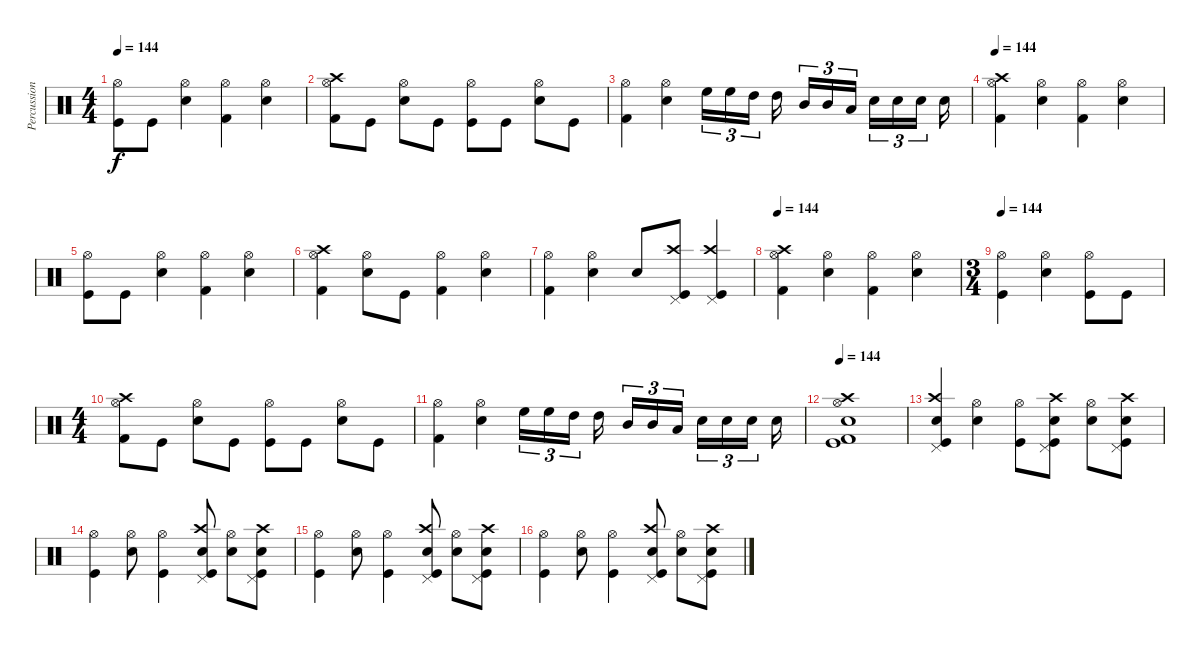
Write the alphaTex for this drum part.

\track ("Percussion" "Percussion") {instrument percussion}
\staff {score}
\articulation defaults
\ts (4 4)
\tempo 144
\clef neutral
\ks c
("Hi-Hat (open)" "Kick (hit)").8{dy f} "Kick (hit)".8 ("Hi-Hat (open)" "Snare (hit) 2").4 ("Hi-Hat (open)" "Kick (hit) 2").4 ("Hi-Hat (open)" "Snare (hit) 2").4 |
("Hi-Hat (open)" "Kick (hit) 2" "Crash high (hit)").8 "Kick (hit)".8 ("Hi-Hat (open)" "Snare (hit) 2").8 "Kick (hit)".8 ("Hi-Hat (open)" "Kick (hit)").8 "Kick (hit)".8 ("Hi-Hat (open)" "Snare (hit) 2").8 "Kick (hit)".8 |
("Hi-Hat (open)" "Kick (hit) 2").4 ("Hi-Hat (open)" "Snare (hit) 2").4 "High Floor Tom (hit)".16{tu (3 2)} "High Floor Tom (hit)".16{tu (3 2)} "High Tom (hit)".16{tu (3 2)} "High Tom (hit)".16 "Mid Tom (hit)".16{tu (3 2)} "Mid Tom (hit)".16{tu (3 2)} "Low Tom (hit)".16{tu (3 2)} "Snare (hit) 2".16{tu (3 2)} "Snare (hit) 2".16{tu (3 2)} "Snare (hit) 2".16{tu (3 2)} "Snare (hit) 2".16 |
\tempo 144
("Hi-Hat (open)" "Kick (hit) 2" "Crash high (hit)").4 ("Hi-Hat (open)" "Snare (hit) 2").4 ("Hi-Hat (open)" "Kick (hit) 2").4 ("Hi-Hat (open)" "Snare (hit) 2").4 |
("Hi-Hat (open)" "Kick (hit)").8 "Kick (hit)".8 ("Hi-Hat (open)" "Snare (hit) 2").4 ("Hi-Hat (open)" "Kick (hit) 2").4 ("Hi-Hat (open)" "Snare (hit) 2").4 |
("Hi-Hat (open)" "Kick (hit) 2" "Crash high (hit)").4 ("Hi-Hat (open)" "Snare (hit) 2").8 "Kick (hit)".8 ("Hi-Hat (open)" "Kick (hit) 2").4 ("Hi-Hat (open)" "Snare (hit) 2").4 |
("Hi-Hat (open)" "Kick (hit) 2").4 ("Hi-Hat (open)" "Snare (hit) 2").4 "Snare (hit) 2".8 ("Pedal Hi-Hat (hit)" "Crash high (hit)" "Kick (hit)").8 ("Pedal Hi-Hat (hit)" "Crash high (hit)" "Kick (hit)").4 |
\tempo 144
("Hi-Hat (open)" "Kick (hit) 2" "Crash high (hit)").4 ("Hi-Hat (open)" "Snare (hit) 2").4 ("Hi-Hat (open)" "Kick (hit) 2").4 ("Hi-Hat (open)" "Snare (hit) 2").4 |
\ts (3 4)
\tempo 144
("Hi-Hat (open)" "Kick (hit)").4 ("Hi-Hat (open)" "Snare (hit) 2").4 ("Hi-Hat (open)" "Kick (hit)").8 "Kick (hit)".8 |
\ts (4 4)
("Hi-Hat (open)" "Kick (hit) 2" "Crash high (hit)").8 "Kick (hit)".8 ("Hi-Hat (open)" "Snare (hit) 2").8 "Kick (hit)".8 ("Hi-Hat (open)" "Kick (hit)").8 "Kick (hit)".8 ("Hi-Hat (open)" "Snare (hit) 2").8 "Kick (hit)".8 |
("Hi-Hat (open)" "Kick (hit) 2").4 ("Hi-Hat (open)" "Snare (hit) 2").4 "High Floor Tom (hit)".16{tu (3 2)} "High Floor Tom (hit)".16{tu (3 2)} "High Tom (hit)".16{tu (3 2)} "High Tom (hit)".16 "Mid Tom (hit)".16{tu (3 2)} "Mid Tom (hit)".16{tu (3 2)} "Low Tom (hit)".16{tu (3 2)} "Snare (hit) 2".16{tu (3 2)} "Snare (hit) 2".16{tu (3 2)} "Snare (hit) 2".16{tu (3 2)} "Snare (hit) 2".16 |
\tempo 144
("Crash high (hit)" "Kick (hit) 2" "Kick (hit)" "Snare (hit) 2" "Hi-Hat (open)").1 |
("Crash high (hit)" "Kick (hit)" "Snare (hit) 2" "Pedal Hi-Hat (hit)").4 ("Hi-Hat (open)" "Snare (hit) 2").4 ("Hi-Hat (open)" "Kick (hit)").8 ("Crash high (hit)" "Kick (hit)" "Pedal Hi-Hat (hit)" "Snare (hit) 2").8 ("Hi-Hat (open)" "Snare (hit) 2").8 ("Crash high (hit)" "Pedal Hi-Hat (hit)" "Kick (hit)" "Snare (hit) 2").8 |
("Hi-Hat (open)" "Kick (hit)").4 ("Hi-Hat (open)" "Snare (hit) 2").8 ("Hi-Hat (open)" "Kick (hit)").4 ("Crash high (hit)" "Kick (hit)" "Pedal Hi-Hat (hit)" "Snare (hit) 2").8 ("Hi-Hat (open)" "Snare (hit) 2").8 ("Crash high (hit)" "Pedal Hi-Hat (hit)" "Kick (hit)" "Snare (hit) 2").8 |
("Hi-Hat (open)" "Kick (hit)").4 ("Hi-Hat (open)" "Snare (hit) 2").8 ("Hi-Hat (open)" "Kick (hit)").4 ("Crash high (hit)" "Kick (hit)" "Pedal Hi-Hat (hit)" "Snare (hit) 2").8 ("Hi-Hat (open)" "Snare (hit) 2").8 ("Crash high (hit)" "Pedal Hi-Hat (hit)" "Kick (hit)" "Snare (hit) 2").8 |
("Hi-Hat (open)" "Kick (hit)").4 ("Hi-Hat (open)" "Snare (hit) 2").8 ("Hi-Hat (open)" "Kick (hit)").4 ("Crash high (hit)" "Kick (hit)" "Pedal Hi-Hat (hit)" "Snare (hit) 2").8 ("Hi-Hat (open)" "Snare (hit) 2").8 ("Crash high (hit)" "Pedal Hi-Hat (hit)" "Kick (hit)" "Snare (hit) 2").8
